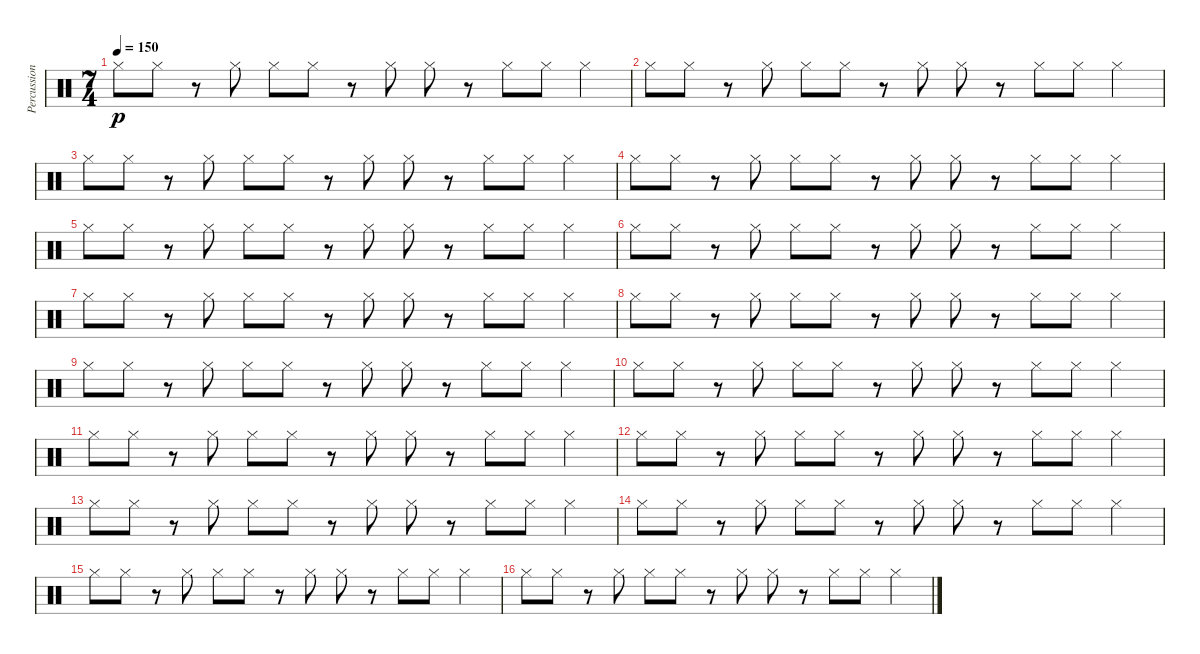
\track ("Percussion" "Percussion") {instrument percussion}
\staff {score}
\articulation defaults
\ts (7 4)
\tempo 150
\clef neutral
\ks c "Hi-Hat (closed)".8{dy p} "Hi-Hat (closed)".8
r.8 "Hi-Hat (closed)".8 "Hi-Hat (closed)".8 "Hi-Hat (closed)".8 r.8 "Hi-Hat (closed)".8 "Hi-Hat (closed)".8 r.8 "Hi-Hat (closed)".8 "Hi-Hat (closed)".8 "Hi-Hat (closed)".4 |
"Hi-Hat (closed)".8 "Hi-Hat (closed)".8 r.8 "Hi-Hat (closed)".8 "Hi-Hat (closed)".8 "Hi-Hat (closed)".8 r.8 "Hi-Hat (closed)".8 "Hi-Hat (closed)".8 r.8 "Hi-Hat (closed)".8 "Hi-Hat (closed)".8 "Hi-Hat (closed)".4 |
"Hi-Hat (closed)".8 "Hi-Hat (closed)".8 r.8 "Hi-Hat (closed)".8 "Hi-Hat (closed)".8 "Hi-Hat (closed)".8 r.8 "Hi-Hat (closed)".8 "Hi-Hat (closed)".8 r.8 "Hi-Hat (closed)".8 "Hi-Hat (closed)".8 "Hi-Hat (closed)".4 |
"Hi-Hat (closed)".8 "Hi-Hat (closed)".8 r.8 "Hi-Hat (closed)".8 "Hi-Hat (closed)".8 "Hi-Hat (closed)".8 r.8 "Hi-Hat (closed)".8 "Hi-Hat (closed)".8 r.8 "Hi-Hat (closed)".8 "Hi-Hat (closed)".8 "Hi-Hat (closed)".4 |
"Hi-Hat (closed)".8 "Hi-Hat (closed)".8 r.8 "Hi-Hat (closed)".8 "Hi-Hat (closed)".8 "Hi-Hat (closed)".8 r.8 "Hi-Hat (closed)".8 "Hi-Hat (closed)".8 r.8 "Hi-Hat (closed)".8 "Hi-Hat (closed)".8 "Hi-Hat (closed)".4 |
"Hi-Hat (closed)".8 "Hi-Hat (closed)".8 r.8 "Hi-Hat (closed)".8 "Hi-Hat (closed)".8 "Hi-Hat (closed)".8 r.8 "Hi-Hat (closed)".8 "Hi-Hat (closed)".8 r.8 "Hi-Hat (closed)".8 "Hi-Hat (closed)".8 "Hi-Hat (closed)".4 |
"Hi-Hat (closed)".8 "Hi-Hat (closed)".8 r.8 "Hi-Hat (closed)".8 "Hi-Hat (closed)".8 "Hi-Hat (closed)".8 r.8 "Hi-Hat (closed)".8 "Hi-Hat (closed)".8 r.8 "Hi-Hat (closed)".8 "Hi-Hat (closed)".8 "Hi-Hat (closed)".4 |
"Hi-Hat (closed)".8 "Hi-Hat (closed)".8 r.8 "Hi-Hat (closed)".8 "Hi-Hat (closed)".8 "Hi-Hat (closed)".8 r.8 "Hi-Hat (closed)".8 "Hi-Hat (closed)".8 r.8 "Hi-Hat (closed)".8 "Hi-Hat (closed)".8 "Hi-Hat (closed)".4 |
"Hi-Hat (closed)".8 "Hi-Hat (closed)".8 r.8 "Hi-Hat (closed)".8 "Hi-Hat (closed)".8 "Hi-Hat (closed)".8 r.8 "Hi-Hat (closed)".8 "Hi-Hat (closed)".8 r.8 "Hi-Hat (closed)".8 "Hi-Hat (closed)".8 "Hi-Hat (closed)".4 |
"Hi-Hat (closed)".8 "Hi-Hat (closed)".8 r.8 "Hi-Hat (closed)".8 "Hi-Hat (closed)".8 "Hi-Hat (closed)".8 r.8 "Hi-Hat (closed)".8 "Hi-Hat (closed)".8 r.8 "Hi-Hat (closed)".8 "Hi-Hat (closed)".8 "Hi-Hat (closed)".4 |
"Hi-Hat (closed)".8 "Hi-Hat (closed)".8 r.8 "Hi-Hat (closed)".8 "Hi-Hat (closed)".8 "Hi-Hat (closed)".8 r.8 "Hi-Hat (closed)".8 "Hi-Hat (closed)".8 r.8 "Hi-Hat (closed)".8 "Hi-Hat (closed)".8 "Hi-Hat (closed)".4 |
"Hi-Hat (closed)".8 "Hi-Hat (closed)".8 r.8 "Hi-Hat (closed)".8 "Hi-Hat (closed)".8 "Hi-Hat (closed)".8 r.8 "Hi-Hat (closed)".8 "Hi-Hat (closed)".8 r.8 "Hi-Hat (closed)".8 "Hi-Hat (closed)".8 "Hi-Hat (closed)".4 |
"Hi-Hat (closed)".8 "Hi-Hat (closed)".8 r.8 "Hi-Hat (closed)".8 "Hi-Hat (closed)".8 "Hi-Hat (closed)".8 r.8 "Hi-Hat (closed)".8 "Hi-Hat (closed)".8 r.8 "Hi-Hat (closed)".8 "Hi-Hat (closed)".8 "Hi-Hat (closed)".4 |
"Hi-Hat (closed)".8 "Hi-Hat (closed)".8 r.8 "Hi-Hat (closed)".8 "Hi-Hat (closed)".8 "Hi-Hat (closed)".8 r.8 "Hi-Hat (closed)".8 "Hi-Hat (closed)".8 r.8 "Hi-Hat (closed)".8 "Hi-Hat (closed)".8 "Hi-Hat (closed)".4 |
"Hi-Hat (closed)".8 "Hi-Hat (closed)".8 r.8 "Hi-Hat (closed)".8 "Hi-Hat (closed)".8 "Hi-Hat (closed)".8 r.8 "Hi-Hat (closed)".8 "Hi-Hat (closed)".8 r.8 "Hi-Hat (closed)".8 "Hi-Hat (closed)".8 "Hi-Hat (closed)".4 |
"Hi-Hat (closed)".8{volume 4} "Hi-Hat (closed)".8 r.8 "Hi-Hat (closed)".8 "Hi-Hat (closed)".8 "Hi-Hat (closed)".8 r.8 "Hi-Hat (closed)".8 "Hi-Hat (closed)".8 r.8 "Hi-Hat (closed)".8 "Hi-Hat (closed)".8 "Hi-Hat (closed)".4
